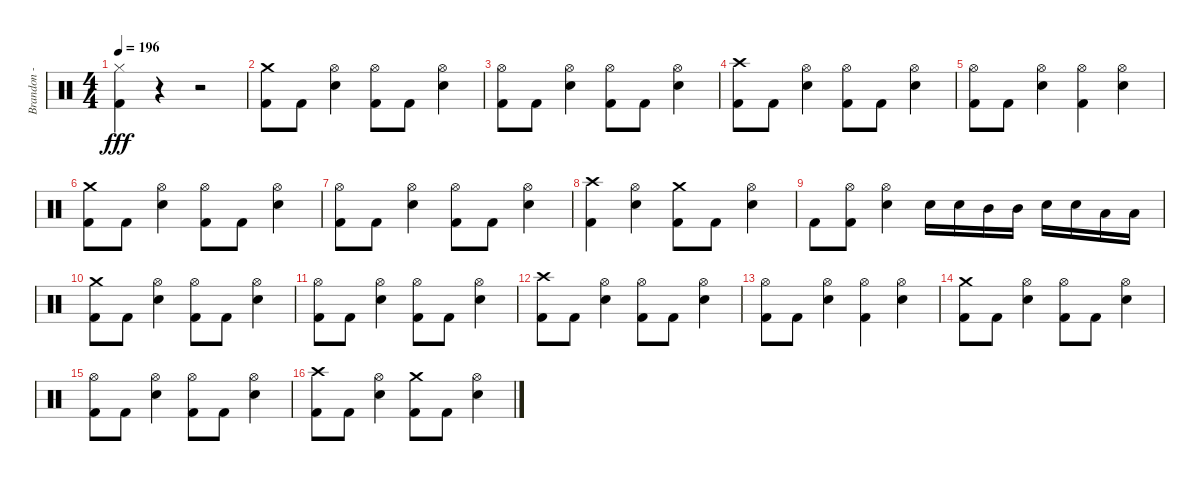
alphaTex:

\track ("Brandon - Drums" "Brandon - ") {instrument percussion}
\staff {score}
\articulation defaults
\ts (4 4)
\tempo 196
\clef neutral
\ks c
("Hi-Hat (closed)" "Kick (hit) 2").4{dy fff} r.4 r.2 |
("Crash medium (hit)" "Kick (hit) 2").8 "Kick (hit) 2".8 ("Hi-Hat (open)" "Snare (hit) 2").4 ("Hi-Hat (open)" "Kick (hit) 2").8 "Kick (hit) 2".8 ("Hi-Hat (open)" "Snare (hit) 2").4 |
("Hi-Hat (open)" "Kick (hit) 2").8 "Kick (hit) 2".8 ("Hi-Hat (open)" "Snare (hit) 2").4 ("Hi-Hat (open)" "Kick (hit) 2").8 "Kick (hit) 2".8 ("Hi-Hat (open)" "Snare (hit) 2").4 |
("Crash high (hit)" "Kick (hit) 2").8 "Kick (hit) 2".8 ("Hi-Hat (open)" "Snare (hit) 2").4 ("Hi-Hat (open)" "Kick (hit) 2").8 "Kick (hit) 2".8 ("Hi-Hat (open)" "Snare (hit) 2").4 |
("Hi-Hat (open)" "Kick (hit) 2").8 "Kick (hit) 2".8 ("Hi-Hat (open)" "Snare (hit) 2").4 ("Hi-Hat (open)" "Kick (hit) 2").4 ("Hi-Hat (open)" "Snare (hit) 2").4 |
("Crash medium (hit)" "Kick (hit) 2").8 "Kick (hit) 2".8 ("Hi-Hat (open)" "Snare (hit) 2").4 ("Hi-Hat (open)" "Kick (hit) 2").8 "Kick (hit) 2".8 ("Hi-Hat (open)" "Snare (hit) 2").4 |
("Hi-Hat (open)" "Kick (hit) 2").8 "Kick (hit) 2".8 ("Hi-Hat (open)" "Snare (hit) 2").4 ("Hi-Hat (open)" "Kick (hit) 2").8 "Kick (hit) 2".8 ("Hi-Hat (open)" "Snare (hit) 2").4 |
("Crash high (hit)" "Kick (hit) 2").4 ("Hi-Hat (open)" "Snare (hit) 2").4 ("Crash medium (hit)" "Kick (hit) 2").8 "Kick (hit) 2".8 ("Hi-Hat (open)" "Snare (hit) 2").4 |
"Kick (hit) 2".8 ("Hi-Hat (open)" "Kick (hit) 2").8 ("Hi-Hat (open)" "Snare (hit) 2").4 "Snare (hit) 2".16 "Snare (hit) 2".16 "Mid Tom (hit)".16 "Mid Tom (hit)".16 "Snare (hit) 2".16 "Snare (hit) 2".16 "Low Tom (hit)".16 "Low Tom (hit)".16 |
("Crash medium (hit)" "Kick (hit) 2").8 "Kick (hit) 2".8 ("Hi-Hat (open)" "Snare (hit) 2").4 ("Hi-Hat (open)" "Kick (hit) 2").8 "Kick (hit) 2".8 ("Hi-Hat (open)" "Snare (hit) 2").4 |
("Hi-Hat (open)" "Kick (hit) 2").8 "Kick (hit) 2".8 ("Hi-Hat (open)" "Snare (hit) 2").4 ("Hi-Hat (open)" "Kick (hit) 2").8 "Kick (hit) 2".8 ("Hi-Hat (open)" "Snare (hit) 2").4 |
("Crash high (hit)" "Kick (hit) 2").8 "Kick (hit) 2".8 ("Hi-Hat (open)" "Snare (hit) 2").4 ("Hi-Hat (open)" "Kick (hit) 2").8 "Kick (hit) 2".8 ("Hi-Hat (open)" "Snare (hit) 2").4 |
("Hi-Hat (open)" "Kick (hit) 2").8 "Kick (hit) 2".8 ("Hi-Hat (open)" "Snare (hit) 2").4 ("Hi-Hat (open)" "Kick (hit) 2").4 ("Hi-Hat (open)" "Snare (hit) 2").4 |
("Crash medium (hit)" "Kick (hit) 2").8 "Kick (hit) 2".8 ("Hi-Hat (open)" "Snare (hit) 2").4 ("Hi-Hat (open)" "Kick (hit) 2").8 "Kick (hit) 2".8 ("Hi-Hat (open)" "Snare (hit) 2").4 |
("Hi-Hat (open)" "Kick (hit) 2").8 "Kick (hit) 2".8 ("Hi-Hat (open)" "Snare (hit) 2").4 ("Hi-Hat (open)" "Kick (hit) 2").8 "Kick (hit) 2".8 ("Hi-Hat (open)" "Snare (hit) 2").4 |
("Crash high (hit)" "Kick (hit) 2").8 "Kick (hit) 2".8 ("Hi-Hat (open)" "Snare (hit) 2").4 ("Crash medium (hit)" "Kick (hit) 2").8 "Kick (hit) 2".8 ("Hi-Hat (open)" "Snare (hit) 2").4
